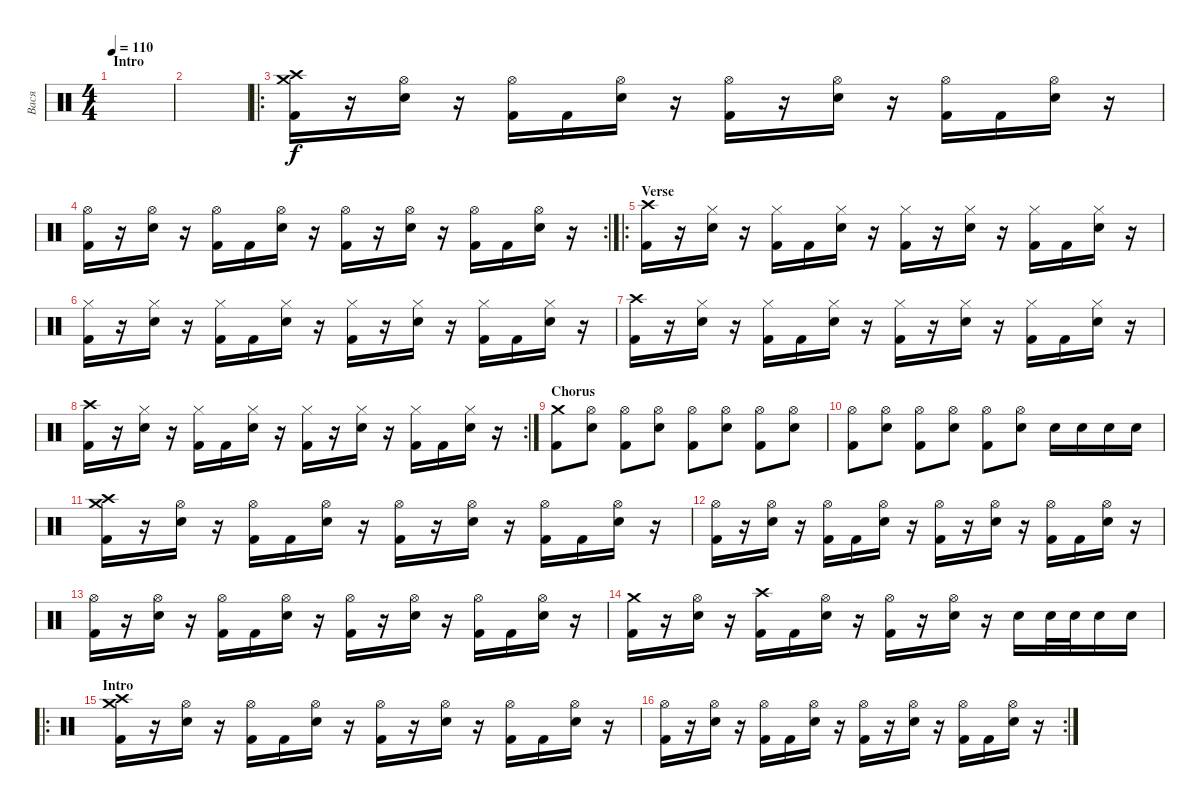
\track ("Вася" "Вася") {instrument percussion}
\staff {score}
\articulation defaults
\ts (4 4)
\section ("" "Intro")
\tempo 110
\clef neutral
\ks c
|
|
\ro
("Crash medium (hit)" "Crash high (hit)" "Kick (hit) 2").16 r.16 ("Hi-Hat (open)" "Electric Snare (hit)").16 r.16 ("Hi-Hat (open)" "Kick (hit) 2").16 "Kick (hit) 2".16 ("Hi-Hat (open)" "Electric Snare (hit)").16 r.16 ("Hi-Hat (open)" "Kick (hit) 2").16 r.16 ("Hi-Hat (open)" "Electric Snare (hit)").16 r.16 ("Hi-Hat (open)" "Kick (hit) 2").16 "Kick (hit) 2".16 ("Hi-Hat (open)" "Electric Snare (hit)").16 r.16 |
\rc 2
("Hi-Hat (open)" "Kick (hit) 2").16 r.16 ("Hi-Hat (open)" "Electric Snare (hit)").16 r.16 ("Hi-Hat (open)" "Kick (hit) 2").16 "Kick (hit) 2".16 ("Hi-Hat (open)" "Electric Snare (hit)").16 r.16 ("Hi-Hat (open)" "Kick (hit) 2").16 r.16 ("Hi-Hat (open)" "Electric Snare (hit)").16 r.16 ("Hi-Hat (open)" "Kick (hit) 2").16 "Kick (hit) 2".16 ("Hi-Hat (open)" "Electric Snare (hit)").16 r.16 |
\ro
\section ("" "Verse")
("Crash high (hit)" "Kick (hit) 2").16 r.16 ("Hi-Hat (closed)" "Electric Snare (hit)").16 r.16 ("Hi-Hat (closed)" "Kick (hit) 2").16 "Kick (hit) 2".16 ("Hi-Hat (closed)" "Electric Snare (hit)").16 r.16 ("Hi-Hat (closed)" "Kick (hit) 2").16 r.16 ("Hi-Hat (closed)" "Electric Snare (hit)").16 r.16 ("Hi-Hat (closed)" "Kick (hit) 2").16 "Kick (hit) 2".16 ("Hi-Hat (closed)" "Electric Snare (hit)").16 r.16 |
("Hi-Hat (closed)" "Kick (hit) 2").16 r.16 ("Hi-Hat (closed)" "Electric Snare (hit)").16 r.16 ("Hi-Hat (closed)" "Kick (hit) 2").16 "Kick (hit) 2".16 ("Hi-Hat (closed)" "Electric Snare (hit)").16 r.16 ("Hi-Hat (closed)" "Kick (hit) 2").16 r.16 ("Hi-Hat (closed)" "Electric Snare (hit)").16 r.16 ("Hi-Hat (closed)" "Kick (hit) 2").16 "Kick (hit) 2".16 ("Hi-Hat (closed)" "Electric Snare (hit)").16 r.16 |
("Crash high (hit)" "Kick (hit) 2").16 r.16 ("Hi-Hat (closed)" "Electric Snare (hit)").16 r.16 ("Hi-Hat (closed)" "Kick (hit) 2").16 "Kick (hit) 2".16 ("Hi-Hat (closed)" "Electric Snare (hit)").16 r.16 ("Hi-Hat (closed)" "Kick (hit) 2").16 r.16 ("Hi-Hat (closed)" "Electric Snare (hit)").16 r.16 ("Hi-Hat (closed)" "Kick (hit) 2").16 "Kick (hit) 2".16 ("Hi-Hat (closed)" "Electric Snare (hit)").16 r.16 |
\rc 2
("Crash high (hit)" "Kick (hit) 2").16 r.16 ("Hi-Hat (closed)" "Electric Snare (hit)").16 r.16 ("Hi-Hat (closed)" "Kick (hit) 2").16 "Kick (hit) 2".16 ("Hi-Hat (closed)" "Electric Snare (hit)").16 r.16 ("Hi-Hat (closed)" "Kick (hit) 2").16 r.16 ("Hi-Hat (closed)" "Electric Snare (hit)").16 r.16 ("Hi-Hat (closed)" "Kick (hit) 2").16 "Kick (hit) 2".16 ("Hi-Hat (closed)" "Electric Snare (hit)").16 r.16 |
\section ("" "Chorus")
("Crash medium (hit)" "Kick (hit) 2").8 ("Hi-Hat (open)" "Electric Snare (hit)").8 ("Hi-Hat (open)" "Kick (hit) 2").8 ("Hi-Hat (open)" "Electric Snare (hit)").8 ("Hi-Hat (open)" "Kick (hit) 2").8 ("Hi-Hat (open)" "Electric Snare (hit)").8 ("Hi-Hat (open)" "Kick (hit) 2").8 ("Hi-Hat (open)" "Electric Snare (hit)").8 |
("Hi-Hat (open)" "Kick (hit) 2").8 ("Hi-Hat (open)" "Electric Snare (hit)").8 ("Hi-Hat (open)" "Kick (hit) 2").8 ("Hi-Hat (open)" "Electric Snare (hit)").8 ("Hi-Hat (open)" "Kick (hit) 2").8 ("Hi-Hat (open)" "Electric Snare (hit)").8 "Electric Snare (hit)".16 "Electric Snare (hit)".16 "Electric Snare (hit)".16 "Electric Snare (hit)".16 |
("Crash medium (hit)" "Crash high (hit)" "Kick (hit) 2").16 r.16 ("Hi-Hat (open)" "Electric Snare (hit)").16 r.16 ("Hi-Hat (open)" "Kick (hit) 2").16 "Kick (hit) 2".16 ("Hi-Hat (open)" "Electric Snare (hit)").16 r.16 ("Hi-Hat (open)" "Kick (hit) 2").16 r.16 ("Hi-Hat (open)" "Electric Snare (hit)").16 r.16 ("Hi-Hat (open)" "Kick (hit) 2").16 "Kick (hit) 2".16 ("Hi-Hat (open)" "Electric Snare (hit)").16 r.16 |
("Hi-Hat (open)" "Kick (hit) 2").16 r.16 ("Hi-Hat (open)" "Electric Snare (hit)").16 r.16 ("Hi-Hat (open)" "Kick (hit) 2").16 "Kick (hit) 2".16 ("Hi-Hat (open)" "Electric Snare (hit)").16 r.16 ("Hi-Hat (open)" "Kick (hit) 2").16 r.16 ("Hi-Hat (open)" "Electric Snare (hit)").16 r.16 ("Hi-Hat (open)" "Kick (hit) 2").16 "Kick (hit) 2".16 ("Hi-Hat (open)" "Electric Snare (hit)").16 r.16 |
("Hi-Hat (open)" "Kick (hit) 2").16 r.16 ("Hi-Hat (open)" "Electric Snare (hit)").16 r.16 ("Hi-Hat (open)" "Kick (hit) 2").16 "Kick (hit) 2".16 ("Hi-Hat (open)" "Electric Snare (hit)").16 r.16 ("Hi-Hat (open)" "Kick (hit) 2").16 r.16 ("Hi-Hat (open)" "Electric Snare (hit)").16 r.16 ("Hi-Hat (open)" "Kick (hit) 2").16 "Kick (hit) 2".16 ("Hi-Hat (open)" "Electric Snare (hit)").16 r.16 |
("Crash medium (hit)" "Kick (hit) 2").16 r.16 ("Hi-Hat (open)" "Electric Snare (hit)").16 r.16 ("Crash high (hit)" "Kick (hit) 2").16 "Kick (hit) 2".16 ("Hi-Hat (open)" "Electric Snare (hit)").16 r.16 ("Hi-Hat (open)" "Kick (hit) 2").16 r.16 ("Hi-Hat (open)" "Electric Snare (hit)").16 r.16 "Electric Snare (hit)".16 "Electric Snare (hit)".32 "Electric Snare (hit)".32 "Electric Snare (hit)".16 "Electric Snare (hit)".16 |
\ro
\section ("" "Intro")
("Crash medium (hit)" "Crash high (hit)" "Kick (hit) 2").16 r.16 ("Hi-Hat (open)" "Electric Snare (hit)").16 r.16 ("Hi-Hat (open)" "Kick (hit) 2").16 "Kick (hit) 2".16 ("Hi-Hat (open)" "Electric Snare (hit)").16 r.16 ("Hi-Hat (open)" "Kick (hit) 2").16 r.16 ("Hi-Hat (open)" "Electric Snare (hit)").16 r.16 ("Hi-Hat (open)" "Kick (hit) 2").16 "Kick (hit) 2".16 ("Hi-Hat (open)" "Electric Snare (hit)").16 r.16 |
\rc 2
("Hi-Hat (open)" "Kick (hit) 2").16 r.16 ("Hi-Hat (open)" "Electric Snare (hit)").16 r.16 ("Hi-Hat (open)" "Kick (hit) 2").16 "Kick (hit) 2".16 ("Hi-Hat (open)" "Electric Snare (hit)").16 r.16 ("Hi-Hat (open)" "Kick (hit) 2").16 r.16 ("Hi-Hat (open)" "Electric Snare (hit)").16 r.16 ("Hi-Hat (open)" "Kick (hit) 2").16 "Kick (hit) 2".16 ("Hi-Hat (open)" "Electric Snare (hit)").16 r.16
